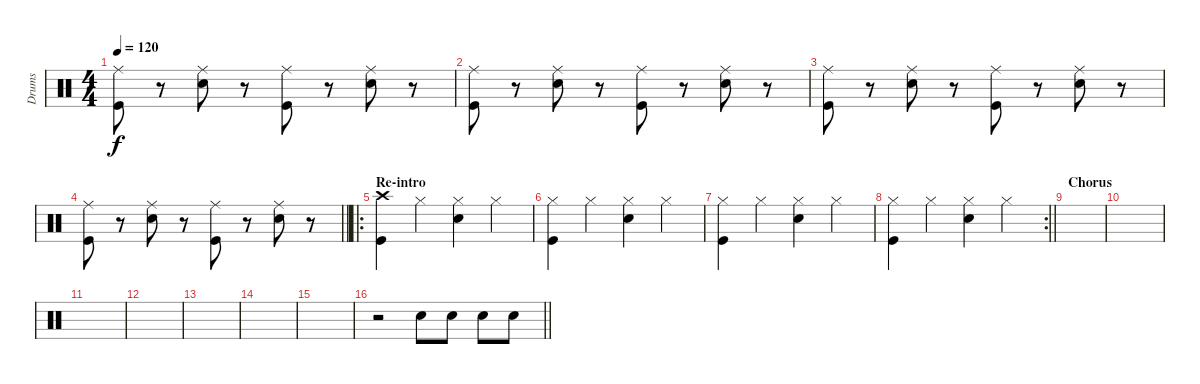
\track ("Drums" "Drums") {instrument percussion}
\staff {score}
\articulation defaults
\ts (4 4)
\tempo 120
\clef neutral
\ks c
("Ride (middle)" "Kick (hit)").8{dy f} r.8 ("Ride (middle)" "Electric Snare (hit)").8 r.8 ("Ride (middle)" "Kick (hit)").8 r.8 ("Ride (middle)" "Electric Snare (hit)").8 r.8 |
("Ride (middle)" "Kick (hit)").8 r.8 ("Ride (middle)" "Electric Snare (hit)").8 r.8 ("Ride (middle)" "Kick (hit)").8 r.8 ("Ride (middle)" "Electric Snare (hit)").8 r.8 |
("Ride (middle)" "Kick (hit)").8 r.8 ("Ride (middle)" "Electric Snare (hit)").8 r.8 ("Ride (middle)" "Kick (hit)").8 r.8 ("Ride (middle)" "Electric Snare (hit)").8 r.8 |
\barLineRight lightlight
("Ride (middle)" "Kick (hit)").8 r.8 ("Ride (middle)" "Electric Snare (hit)").8 r.8 ("Ride (middle)" "Kick (hit)").8 r.8 ("Ride (middle)" "Electric Snare (hit)").8 r.8 |
\ro
\section ("" "Re-intro")
("Crash high (hit)" "Kick (hit)").4 "Hi-Hat (closed)".4 ("Hi-Hat (closed)" "Electric Snare (hit)").4 "Hi-Hat (closed)".4 |
("Hi-Hat (closed)" "Kick (hit)").4 "Hi-Hat (closed)".4 ("Hi-Hat (closed)" "Electric Snare (hit)").4 "Hi-Hat (closed)".4 |
("Hi-Hat (closed)" "Kick (hit)").4 "Hi-Hat (closed)".4 ("Hi-Hat (closed)" "Electric Snare (hit)").4 "Hi-Hat (closed)".4 |
\rc 2
\barLineRight lightlight
("Hi-Hat (closed)" "Kick (hit)").4 "Hi-Hat (closed)".4 ("Hi-Hat (closed)" "Electric Snare (hit)").4 "Hi-Hat (closed)".4 |
\section ("" "Chorus")
|
|
|
|
|
|
|
\barLineRight lightlight
r.2 "Electric Snare (hit)".8 "Electric Snare (hit)".8 "Electric Snare (hit)".8 "Electric Snare (hit)".8
